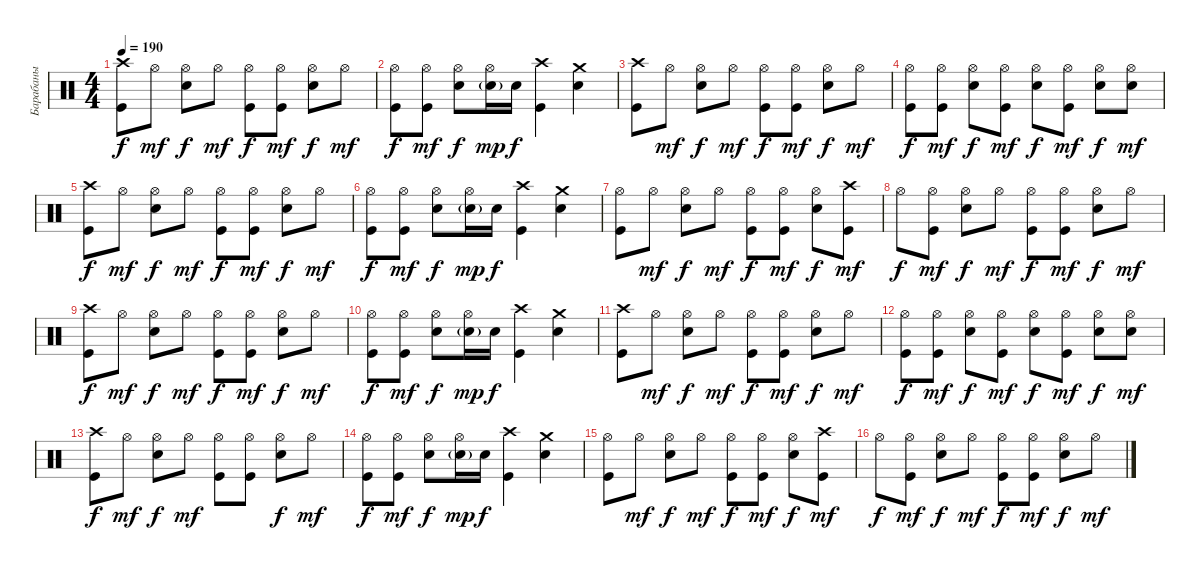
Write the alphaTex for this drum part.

\track ("Барабаны" "Барабаны") {instrument percussion}
\staff {score}
\articulation defaults
\ts (4 4)
\tempo 190
\clef neutral
\ks c
("Crash high (hit)" "Kick (hit)").8{dy f} "Hi-Hat (open)".8{dy mf} ("Hi-Hat (open)" "Electric Snare (hit)").8{dy f} "Hi-Hat (open)".8{dy mf} ("Hi-Hat (open)" "Kick (hit)").8{dy f} ("Hi-Hat (open)" "Kick (hit)").8{dy mf} ("Hi-Hat (open)" "Electric Snare (hit)").8{dy f} "Hi-Hat (open)".8{dy mf} |
("Hi-Hat (open)" "Kick (hit)").8{dy f} ("Hi-Hat (open)" "Kick (hit)").8{dy mf} ("Hi-Hat (open)" "Electric Snare (hit)").8{dy f} ("Hi-Hat (open)" "Electric Snare (hit)"{g}).16{dy mp} "Electric Snare (hit)".16{dy f} ("Crash high (hit)" "Kick (hit)").4 ("Crash medium (hit)" "Electric Snare (hit)").4 |
("Crash high (hit)" "Kick (hit)").8 "Hi-Hat (open)".8{dy mf} ("Hi-Hat (open)" "Electric Snare (hit)").8{dy f} "Hi-Hat (open)".8{dy mf} ("Hi-Hat (open)" "Kick (hit)").8{dy f} ("Hi-Hat (open)" "Kick (hit)").8{dy mf} ("Hi-Hat (open)" "Electric Snare (hit)").8{dy f} "Hi-Hat (open)".8{dy mf} |
("Hi-Hat (open)" "Kick (hit)").8{dy f} ("Hi-Hat (open)" "Kick (hit)").8{dy mf} ("Hi-Hat (open)" "Electric Snare (hit)").8{dy f} ("Hi-Hat (open)" "Kick (hit)").8{dy mf} ("Hi-Hat (open)" "Electric Snare (hit)").8{dy f} ("Hi-Hat (open)" "Kick (hit)").8{dy mf} ("Hi-Hat (open)" "Electric Snare (hit)").8{dy f} ("Hi-Hat (open)" "Electric Snare (hit)").8{dy mf} |
("Crash high (hit)" "Kick (hit)").8{dy f} "Hi-Hat (open)".8{dy mf} ("Hi-Hat (open)" "Electric Snare (hit)").8{dy f} "Hi-Hat (open)".8{dy mf} ("Hi-Hat (open)" "Kick (hit)").8{dy f} ("Hi-Hat (open)" "Kick (hit)").8{dy mf} ("Hi-Hat (open)" "Electric Snare (hit)").8{dy f} "Hi-Hat (open)".8{dy mf} |
("Hi-Hat (open)" "Kick (hit)").8{dy f} ("Hi-Hat (open)" "Kick (hit)").8{dy mf} ("Hi-Hat (open)" "Electric Snare (hit)").8{dy f} ("Hi-Hat (open)" "Electric Snare (hit)"{g}).16{dy mp} "Electric Snare (hit)".16{dy f} ("Crash high (hit)" "Kick (hit)").4 ("Crash medium (hit)" "Electric Snare (hit)").4 |
("Hi-Hat (open)" "Kick (hit)").8 "Hi-Hat (open)".8{dy mf} ("Hi-Hat (open)" "Electric Snare (hit)").8{dy f} "Hi-Hat (open)".8{dy mf} ("Hi-Hat (open)" "Kick (hit)").8{dy f} ("Hi-Hat (open)" "Kick (hit)").8{dy mf} ("Hi-Hat (open)" "Electric Snare (hit)").8{dy f} ("Crash high (hit)" "Kick (hit)").8{dy mf} |
"Hi-Hat (open)".8{dy f} ("Hi-Hat (open)" "Kick (hit)").8{dy mf} ("Hi-Hat (open)" "Electric Snare (hit)").8{dy f} "Hi-Hat (open)".8{dy mf} ("Hi-Hat (open)" "Kick (hit)").8{dy f} ("Hi-Hat (open)" "Kick (hit)").8{dy mf} ("Hi-Hat (open)" "Electric Snare (hit)").8{dy f} "Hi-Hat (open)".8{dy mf} |
("Crash high (hit)" "Kick (hit)").8{dy f} "Hi-Hat (open)".8{dy mf} ("Hi-Hat (open)" "Electric Snare (hit)").8{dy f} "Hi-Hat (open)".8{dy mf} ("Hi-Hat (open)" "Kick (hit)").8{dy f} ("Hi-Hat (open)" "Kick (hit)").8{dy mf} ("Hi-Hat (open)" "Electric Snare (hit)").8{dy f} "Hi-Hat (open)".8{dy mf} |
("Hi-Hat (open)" "Kick (hit)").8{dy f} ("Hi-Hat (open)" "Kick (hit)").8{dy mf} ("Hi-Hat (open)" "Electric Snare (hit)").8{dy f} ("Hi-Hat (open)" "Electric Snare (hit)"{g}).16{dy mp} "Electric Snare (hit)".16{dy f} ("Crash high (hit)" "Kick (hit)").4 ("Crash medium (hit)" "Electric Snare (hit)").4 |
("Crash high (hit)" "Kick (hit)").8 "Hi-Hat (open)".8{dy mf} ("Hi-Hat (open)" "Electric Snare (hit)").8{dy f} "Hi-Hat (open)".8{dy mf} ("Hi-Hat (open)" "Kick (hit)").8{dy f} ("Hi-Hat (open)" "Kick (hit)").8{dy mf} ("Hi-Hat (open)" "Electric Snare (hit)").8{dy f} "Hi-Hat (open)".8{dy mf} |
("Hi-Hat (open)" "Kick (hit)").8{dy f} ("Hi-Hat (open)" "Kick (hit)").8{dy mf} ("Hi-Hat (open)" "Electric Snare (hit)").8{dy f} ("Hi-Hat (open)" "Kick (hit)").8{dy mf} ("Hi-Hat (open)" "Electric Snare (hit)").8{dy f} ("Hi-Hat (open)" "Kick (hit)").8{dy mf} ("Hi-Hat (open)" "Electric Snare (hit)").8{dy f} ("Hi-Hat (open)" "Electric Snare (hit)").8{dy mf} |
("Crash high (hit)" "Kick (hit)").8{dy f} "Hi-Hat (open)".8{dy mf} ("Hi-Hat (open)" "Electric Snare (hit)").8{dy f} "Hi-Hat (open)".8{dy mf} ("Hi-Hat (open)" "Kick (hit)").8 ("Hi-Hat (open)" "Kick (hit)").8 ("Hi-Hat (open)" "Electric Snare (hit)").8{dy f} "Hi-Hat (open)".8{dy mf} |
("Hi-Hat (open)" "Kick (hit)").8{dy f} ("Hi-Hat (open)" "Kick (hit)").8{dy mf} ("Hi-Hat (open)" "Electric Snare (hit)").8{dy f} ("Hi-Hat (open)" "Electric Snare (hit)"{g}).16{dy mp} "Electric Snare (hit)".16{dy f} ("Crash high (hit)" "Kick (hit)").4 ("Crash medium (hit)" "Electric Snare (hit)").4 |
("Hi-Hat (open)" "Kick (hit)").8 "Hi-Hat (open)".8{dy mf} ("Hi-Hat (open)" "Electric Snare (hit)").8{dy f} "Hi-Hat (open)".8{dy mf} ("Hi-Hat (open)" "Kick (hit)").8{dy f} ("Hi-Hat (open)" "Kick (hit)").8{dy mf} ("Hi-Hat (open)" "Electric Snare (hit)").8{dy f} ("Crash high (hit)" "Kick (hit)").8{dy mf} |
"Hi-Hat (open)".8{dy f} ("Hi-Hat (open)" "Kick (hit)").8{dy mf} ("Hi-Hat (open)" "Electric Snare (hit)").8{dy f} "Hi-Hat (open)".8{dy mf} ("Hi-Hat (open)" "Kick (hit)").8{dy f} ("Hi-Hat (open)" "Kick (hit)").8{dy mf} ("Hi-Hat (open)" "Electric Snare (hit)").8{dy f} "Hi-Hat (open)".8{dy mf}
